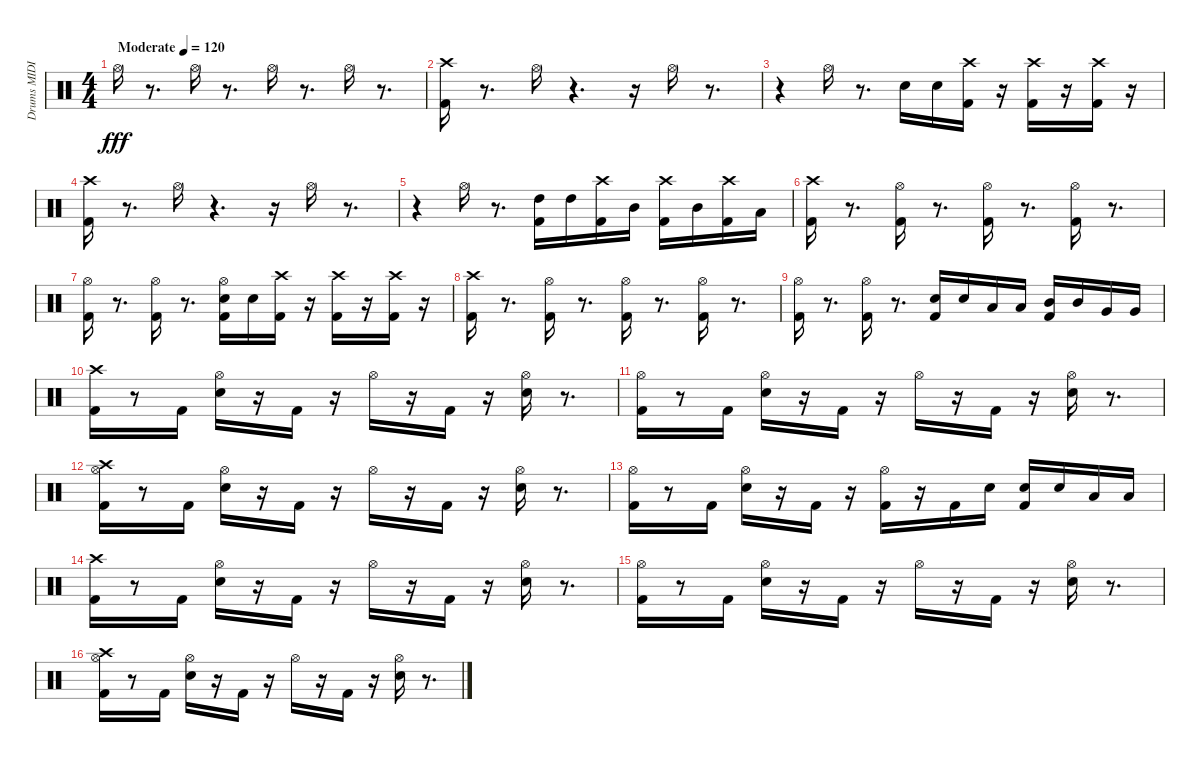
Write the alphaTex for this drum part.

\track ("Drums MIDI" "Drums MIDI") {instrument percussion}
\staff {score}
\articulation defaults
\ts (4 4)
\tempo (120 "Moderate")
\clef neutral
\ks c "Hi-Hat (open)".16{dy fff}
r.8{d} "Hi-Hat (open)".16 r.8{d} "Hi-Hat (open)".16 r.8{d} "Hi-Hat (open)".16 r.8{d} |
("Kick (hit) 2" "Crash high (hit)").16 r.8{d} "Hi-Hat (open)".16 r.4{d} r.16 "Hi-Hat (open)".16 r.8{d} |
r.4 "Hi-Hat (open)".16 r.8{d} "Snare (hit) 2".16 "Snare (hit) 2".16 ("Kick (hit) 2" "Crash high (hit)").16 r.16 ("Kick (hit) 2" "Crash high (hit)").16 r.16 ("Kick (hit) 2" "Crash high (hit)").16 r.16 |
("Kick (hit) 2" "Crash high (hit)").16 r.8{d} "Hi-Hat (open)".16 r.4{d} r.16 "Hi-Hat (open)".16 r.8{d} |
r.4 "Hi-Hat (open)".16 r.8{d} ("Kick (hit) 2" "High Tom (hit)").16 "High Tom (hit)".16 ("Kick (hit) 2" "Crash high (hit)").16 "Mid Tom (hit)".16 ("Kick (hit) 2" "Crash high (hit)").16 "Mid Tom (hit)".16 ("Kick (hit) 2" "Crash high (hit)").16 "Low Tom (hit)".16 |
("Kick (hit) 2" "Crash high (hit)").16 r.8{d} ("Kick (hit) 2" "Hi-Hat (open)").16 r.8{d} ("Kick (hit) 2" "Hi-Hat (open)").16 r.8{d} ("Kick (hit) 2" "Hi-Hat (open)").16 r.8{d} |
("Kick (hit) 2" "Hi-Hat (open)").16 r.8{d} ("Kick (hit) 2" "Hi-Hat (open)").16 r.8{d} ("Kick (hit) 2" "Snare (hit) 2" "Hi-Hat (open)").16 "Snare (hit) 2".16 ("Kick (hit) 2" "Crash high (hit)").16 r.16 ("Kick (hit) 2" "Crash high (hit)").16 r.16 ("Kick (hit) 2" "Crash high (hit)").16 r.16 |
("Kick (hit) 2" "Crash high (hit)").16 r.8{d} ("Kick (hit) 2" "Hi-Hat (open)").16 r.8{d} ("Kick (hit) 2" "Hi-Hat (open)").16 r.8{d} ("Kick (hit) 2" "Hi-Hat (open)").16 r.8{d} |
("Kick (hit) 2" "Hi-Hat (open)").16 r.8{d} ("Kick (hit) 2" "Hi-Hat (open)").16 r.8{d} ("Kick (hit) 2" "Snare (hit) 2").16 "Snare (hit) 2".16 "Low Tom (hit)".16 "Low Tom (hit)".16 ("Kick (hit) 2" "Mid Tom (hit)").16 "Mid Tom (hit)".16 "Very Low Tom (hit)".16 "Very Low Tom (hit)".16 |
("Kick (hit) 2" "Crash high (hit)").16 r.8 "Kick (hit) 2".16 ("Snare (hit) 2" "Hi-Hat (open)").16 r.16 "Kick (hit) 2".16 r.16 "Hi-Hat (open)".16 r.16 "Kick (hit) 2".16 r.16 ("Snare (hit) 2" "Hi-Hat (open)").16 r.8{d} |
("Kick (hit) 2" "Hi-Hat (open)").16 r.8 "Kick (hit) 2".16 ("Snare (hit) 2" "Hi-Hat (open)").16 r.16 "Kick (hit) 2".16 r.16 "Hi-Hat (open)".16 r.16 "Kick (hit) 2".16 r.16 ("Snare (hit) 2" "Hi-Hat (open)").16 r.8{d} |
("Kick (hit) 2" "Hi-Hat (open)" "Crash high (hit)").16 r.8 "Kick (hit) 2".16 ("Snare (hit) 2" "Hi-Hat (open)").16 r.16 "Kick (hit) 2".16 r.16 "Hi-Hat (open)".16 r.16 "Kick (hit) 2".16 r.16 ("Snare (hit) 2" "Hi-Hat (open)").16 r.8{d} |
("Kick (hit) 2" "Hi-Hat (open)").16 r.8 "Kick (hit) 2".16 ("Snare (hit) 2" "Hi-Hat (open)").16 r.16 "Kick (hit) 2".16 r.16 ("Kick (hit) 2" "Hi-Hat (open)").16 r.16 "Kick (hit) 2".16 "Snare (hit) 2".16 ("Kick (hit) 2" "Snare (hit) 2").16 "Snare (hit) 2".16 "Low Tom (hit)".16 "Low Tom (hit)".16 |
("Kick (hit) 2" "Crash high (hit)").16 r.8 "Kick (hit) 2".16 ("Snare (hit) 2" "Hi-Hat (open)").16 r.16 "Kick (hit) 2".16 r.16 "Hi-Hat (open)".16 r.16 "Kick (hit) 2".16 r.16 ("Snare (hit) 2" "Hi-Hat (open)").16 r.8{d} |
("Kick (hit) 2" "Hi-Hat (open)").16 r.8 "Kick (hit) 2".16 ("Snare (hit) 2" "Hi-Hat (open)").16 r.16 "Kick (hit) 2".16 r.16 "Hi-Hat (open)".16 r.16 "Kick (hit) 2".16 r.16 ("Snare (hit) 2" "Hi-Hat (open)").16 r.8{d} |
("Kick (hit) 2" "Hi-Hat (open)" "Crash high (hit)").16 r.8 "Kick (hit) 2".16 ("Snare (hit) 2" "Hi-Hat (open)").16 r.16 "Kick (hit) 2".16 r.16 "Hi-Hat (open)".16 r.16 "Kick (hit) 2".16 r.16 ("Snare (hit) 2" "Hi-Hat (open)").16 r.8{d}
